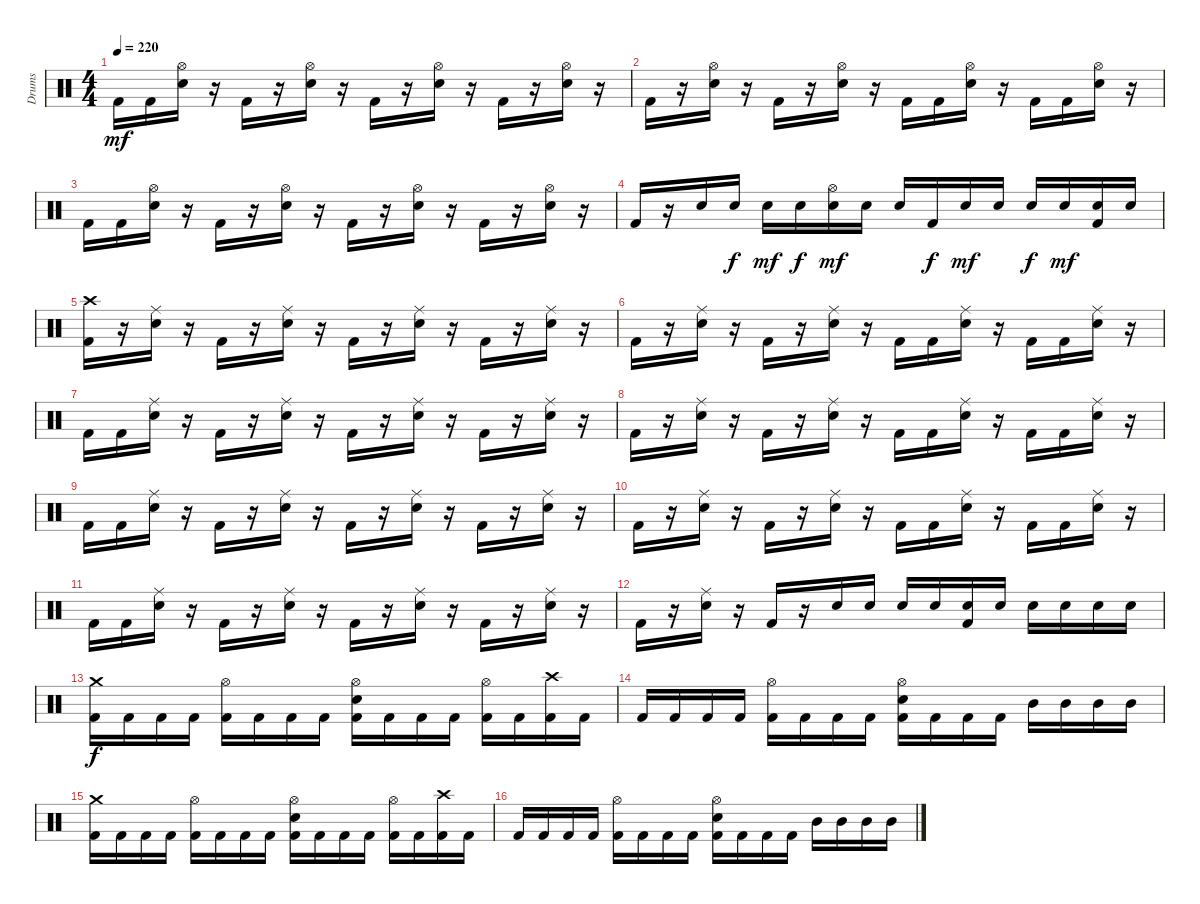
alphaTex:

\track ("Drums" "Drums") {instrument percussion}
\staff {score}
\articulation defaults
\ts (4 4)
\tempo 220
\clef neutral
\ks c "Kick (hit) 2".16{dy mf} "Kick (hit) 2".16
("Electric Snare (hit)" "Hi-Hat (open)").16 r.16 "Kick (hit) 2".16 r.16 ("Electric Snare (hit)" "Hi-Hat (open)").16 r.16 "Kick (hit) 2".16 r.16 ("Electric Snare (hit)" "Hi-Hat (open)").16 r.16 "Kick (hit) 2".16 r.16 ("Electric Snare (hit)" "Hi-Hat (open)").16 r.16 |
"Kick (hit) 2".16 r.16 ("Electric Snare (hit)" "Hi-Hat (open)").16 r.16 "Kick (hit) 2".16 r.16 ("Electric Snare (hit)" "Hi-Hat (open)").16 r.16 "Kick (hit) 2".16 "Kick (hit) 2".16 ("Electric Snare (hit)" "Hi-Hat (open)").16 r.16 "Kick (hit) 2".16 "Kick (hit) 2".16 ("Electric Snare (hit)" "Hi-Hat (open)").16 r.16 |
"Kick (hit) 2".16 "Kick (hit) 2".16 ("Electric Snare (hit)" "Hi-Hat (open)").16 r.16 "Kick (hit) 2".16 r.16 ("Electric Snare (hit)" "Hi-Hat (open)").16 r.16 "Kick (hit) 2".16 r.16 ("Electric Snare (hit)" "Hi-Hat (open)").16 r.16 "Kick (hit) 2".16 r.16 ("Electric Snare (hit)" "Hi-Hat (open)").16 r.16 |
"Kick (hit) 2".16 r.16 "Electric Snare (hit)".16 "Electric Snare (hit)".16{dy f} "Electric Snare (hit)".16{dy mf} "Electric Snare (hit)".16{dy f} ("Electric Snare (hit)" "Hi-Hat (open)").16{dy mf} "Electric Snare (hit)".16 "Electric Snare (hit)".16 "Kick (hit) 2".16{dy f} "Electric Snare (hit)".16{dy mf} "Electric Snare (hit)".16 "Electric Snare (hit)".16{dy f} "Electric Snare (hit)".16{dy mf} ("Electric Snare (hit)" "Kick (hit) 2").16 "Electric Snare (hit)".16 |
("Kick (hit) 2" "Crash high (hit)").16 r.16 ("Electric Snare (hit)" "Ride (middle)").16 r.16 "Kick (hit) 2".16 r.16 ("Electric Snare (hit)" "Ride (middle)").16 r.16 "Kick (hit) 2".16 r.16 ("Electric Snare (hit)" "Ride (middle)").16 r.16 "Kick (hit) 2".16 r.16 ("Electric Snare (hit)" "Ride (middle)").16 r.16 |
"Kick (hit) 2".16 r.16 ("Electric Snare (hit)" "Ride (middle)").16 r.16 "Kick (hit) 2".16 r.16 ("Electric Snare (hit)" "Ride (middle)").16 r.16 "Kick (hit) 2".16 "Kick (hit) 2".16 ("Electric Snare (hit)" "Ride (middle)").16 r.16 "Kick (hit) 2".16 "Kick (hit) 2".16 ("Electric Snare (hit)" "Ride (middle)").16 r.16 |
"Kick (hit) 2".16 "Kick (hit) 2".16 ("Electric Snare (hit)" "Ride (middle)").16 r.16 "Kick (hit) 2".16 r.16 ("Electric Snare (hit)" "Ride (middle)").16 r.16 "Kick (hit) 2".16 r.16 ("Electric Snare (hit)" "Ride (middle)").16 r.16 "Kick (hit) 2".16 r.16 ("Electric Snare (hit)" "Ride (middle)").16 r.16 |
"Kick (hit) 2".16 r.16 ("Electric Snare (hit)" "Ride (middle)").16 r.16 "Kick (hit) 2".16 r.16 ("Electric Snare (hit)" "Ride (middle)").16 r.16 "Kick (hit) 2".16 "Kick (hit) 2".16 ("Electric Snare (hit)" "Ride (middle)").16 r.16 "Kick (hit) 2".16 "Kick (hit) 2".16 ("Electric Snare (hit)" "Ride (middle)").16 r.16 |
"Kick (hit) 2".16 "Kick (hit) 2".16 ("Electric Snare (hit)" "Ride (middle)").16 r.16 "Kick (hit) 2".16 r.16 ("Electric Snare (hit)" "Ride (middle)").16 r.16 "Kick (hit) 2".16 r.16 ("Electric Snare (hit)" "Ride (middle)").16 r.16 "Kick (hit) 2".16 r.16 ("Electric Snare (hit)" "Ride (middle)").16 r.16 |
"Kick (hit) 2".16 r.16 ("Electric Snare (hit)" "Ride (middle)").16 r.16 "Kick (hit) 2".16 r.16 ("Electric Snare (hit)" "Ride (middle)").16 r.16 "Kick (hit) 2".16 "Kick (hit) 2".16 ("Electric Snare (hit)" "Ride (middle)").16 r.16 "Kick (hit) 2".16 "Kick (hit) 2".16 ("Electric Snare (hit)" "Ride (middle)").16 r.16 |
"Kick (hit) 2".16 "Kick (hit) 2".16 ("Electric Snare (hit)" "Ride (middle)").16 r.16 "Kick (hit) 2".16 r.16 ("Electric Snare (hit)" "Ride (middle)").16 r.16 "Kick (hit) 2".16 r.16 ("Electric Snare (hit)" "Ride (middle)").16 r.16 "Kick (hit) 2".16 r.16 ("Electric Snare (hit)" "Ride (middle)").16 r.16 |
"Kick (hit) 2".16 r.16 ("Electric Snare (hit)" "Ride (middle)").16 r.16 "Kick (hit) 2".16 r.16 "Electric Snare (hit)".16 "Electric Snare (hit)".16 "Electric Snare (hit)".16 "Electric Snare (hit)".16 ("Electric Snare (hit)" "Kick (hit) 2").16 "Electric Snare (hit)".16 "Electric Snare (hit)".16 "Electric Snare (hit)".16 "Electric Snare (hit)".16 "Electric Snare (hit)".16 |
("Kick (hit) 2" "Crash medium (hit)").16{dy f} "Kick (hit) 2".16 "Kick (hit) 2".16 "Kick (hit) 2".16 ("Kick (hit) 2" "Hi-Hat (open)").16 "Kick (hit) 2".16 "Kick (hit) 2".16 "Kick (hit) 2".16 ("Kick (hit) 2" "Electric Snare (hit)" "Hi-Hat (open)").16 "Kick (hit) 2".16 "Kick (hit) 2".16 "Kick (hit) 2".16 ("Kick (hit) 2" "Hi-Hat (open)").16 "Kick (hit) 2".16 ("Kick (hit) 2" "Crash high (hit)").16 "Kick (hit) 2".16 |
"Kick (hit) 2".16 "Kick (hit) 2".16 "Kick (hit) 2".16 "Kick (hit) 2".16 ("Kick (hit) 2" "Hi-Hat (open)").16 "Kick (hit) 2".16 "Kick (hit) 2".16 "Kick (hit) 2".16 ("Kick (hit) 2" "Electric Snare (hit)" "Hi-Hat (open)").16 "Kick (hit) 2".16 "Kick (hit) 2".16 "Kick (hit) 2".16 "Mid Tom (hit)".16 "Mid Tom (hit)".16 "Mid Tom (hit)".16 "Mid Tom (hit)".16 |
("Kick (hit) 2" "Crash medium (hit)").16 "Kick (hit) 2".16 "Kick (hit) 2".16 "Kick (hit) 2".16 ("Kick (hit) 2" "Hi-Hat (open)").16 "Kick (hit) 2".16 "Kick (hit) 2".16 "Kick (hit) 2".16 ("Kick (hit) 2" "Electric Snare (hit)" "Hi-Hat (open)").16 "Kick (hit) 2".16 "Kick (hit) 2".16 "Kick (hit) 2".16 ("Kick (hit) 2" "Hi-Hat (open)").16 "Kick (hit) 2".16 ("Kick (hit) 2" "Crash high (hit)").16 "Kick (hit) 2".16 |
"Kick (hit) 2".16 "Kick (hit) 2".16 "Kick (hit) 2".16 "Kick (hit) 2".16 ("Kick (hit) 2" "Hi-Hat (open)").16 "Kick (hit) 2".16 "Kick (hit) 2".16 "Kick (hit) 2".16 ("Kick (hit) 2" "Electric Snare (hit)" "Hi-Hat (open)").16 "Kick (hit) 2".16 "Kick (hit) 2".16 "Kick (hit) 2".16 "Mid Tom (hit)".16 "Mid Tom (hit)".16 "Mid Tom (hit)".16 "Mid Tom (hit)".16
